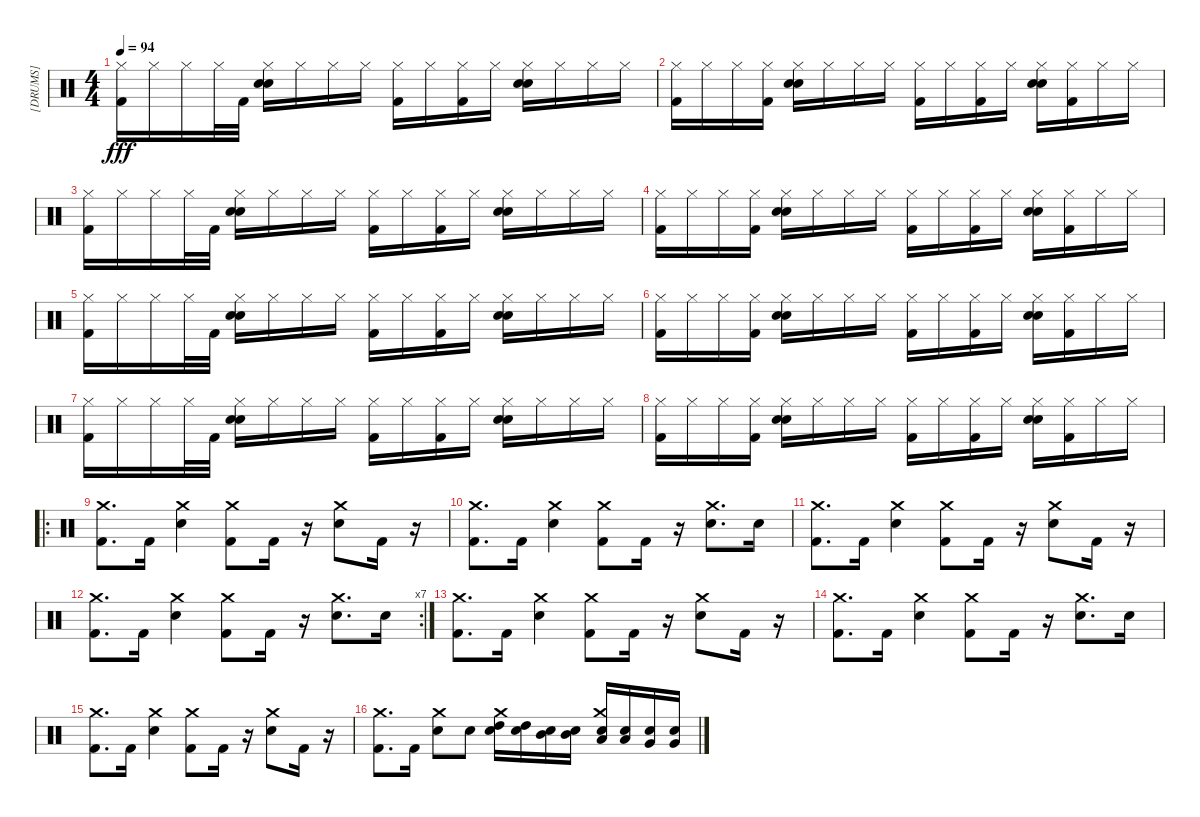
\track ("[DRUMS]" "[DRUMS]") {instrument percussion}
\staff {score}
\articulation defaults
\ts (4 4)
\tempo 94
\clef neutral
\ks c
("Hi-Hat (closed)" "Kick (hit) 2").16{dy fff} "Hi-Hat (closed)".16 "Hi-Hat (closed)".16 "Hi-Hat (closed)".32 "Kick (hit) 2".32 ("Hi-Hat (closed)" "Snare (hit) 2" "Electric Snare (hit)").16 "Hi-Hat (closed)".16 "Hi-Hat (closed)".16 "Hi-Hat (closed)".16 ("Hi-Hat (closed)" "Kick (hit) 2").16 "Hi-Hat (closed)".16 ("Hi-Hat (closed)" "Kick (hit) 2").16 "Hi-Hat (closed)".16 ("Hi-Hat (closed)" "Snare (hit) 2" "Electric Snare (hit)").16 "Hi-Hat (closed)".16 "Hi-Hat (closed)".16 "Hi-Hat (closed)".16 |
("Kick (hit) 2" "Hi-Hat (closed)").16 "Hi-Hat (closed)".16 "Hi-Hat (closed)".16 ("Kick (hit) 2" "Hi-Hat (closed)").16 ("Snare (hit) 2" "Electric Snare (hit)" "Hi-Hat (closed)").16 "Hi-Hat (closed)".16 "Hi-Hat (closed)".16 "Hi-Hat (closed)".16 ("Kick (hit) 2" "Hi-Hat (closed)").16 "Hi-Hat (closed)".16 ("Kick (hit) 2" "Hi-Hat (closed)").16 "Hi-Hat (closed)".16 ("Snare (hit) 2" "Electric Snare (hit)" "Hi-Hat (closed)").16 ("Kick (hit) 2" "Hi-Hat (closed)").16 "Hi-Hat (closed)".16 "Hi-Hat (closed)".16 |
("Hi-Hat (closed)" "Kick (hit) 2").16 "Hi-Hat (closed)".16 "Hi-Hat (closed)".16 "Hi-Hat (closed)".32 "Kick (hit) 2".32 ("Hi-Hat (closed)" "Snare (hit) 2" "Electric Snare (hit)").16 "Hi-Hat (closed)".16 "Hi-Hat (closed)".16 "Hi-Hat (closed)".16 ("Hi-Hat (closed)" "Kick (hit) 2").16 "Hi-Hat (closed)".16 ("Hi-Hat (closed)" "Kick (hit) 2").16 "Hi-Hat (closed)".16 ("Hi-Hat (closed)" "Snare (hit) 2" "Electric Snare (hit)").16 "Hi-Hat (closed)".16 "Hi-Hat (closed)".16 "Hi-Hat (closed)".16 |
("Kick (hit) 2" "Hi-Hat (closed)").16 "Hi-Hat (closed)".16 "Hi-Hat (closed)".16 ("Kick (hit) 2" "Hi-Hat (closed)").16 ("Snare (hit) 2" "Electric Snare (hit)" "Hi-Hat (closed)").16 "Hi-Hat (closed)".16 "Hi-Hat (closed)".16 "Hi-Hat (closed)".16 ("Kick (hit) 2" "Hi-Hat (closed)").16 "Hi-Hat (closed)".16 ("Kick (hit) 2" "Hi-Hat (closed)").16 "Hi-Hat (closed)".16 ("Snare (hit) 2" "Electric Snare (hit)" "Hi-Hat (closed)").16 ("Kick (hit) 2" "Hi-Hat (closed)").16 "Hi-Hat (closed)".16 "Hi-Hat (closed)".16 |
("Hi-Hat (closed)" "Kick (hit) 2").16 "Hi-Hat (closed)".16 "Hi-Hat (closed)".16 "Hi-Hat (closed)".32 "Kick (hit) 2".32 ("Hi-Hat (closed)" "Snare (hit) 2" "Electric Snare (hit)").16 "Hi-Hat (closed)".16 "Hi-Hat (closed)".16 "Hi-Hat (closed)".16 ("Hi-Hat (closed)" "Kick (hit) 2").16 "Hi-Hat (closed)".16 ("Hi-Hat (closed)" "Kick (hit) 2").16 "Hi-Hat (closed)".16 ("Hi-Hat (closed)" "Snare (hit) 2" "Electric Snare (hit)").16 "Hi-Hat (closed)".16 "Hi-Hat (closed)".16 "Hi-Hat (closed)".16 |
("Kick (hit) 2" "Hi-Hat (closed)").16 "Hi-Hat (closed)".16 "Hi-Hat (closed)".16 ("Kick (hit) 2" "Hi-Hat (closed)").16 ("Snare (hit) 2" "Electric Snare (hit)" "Hi-Hat (closed)").16 "Hi-Hat (closed)".16 "Hi-Hat (closed)".16 "Hi-Hat (closed)".16 ("Kick (hit) 2" "Hi-Hat (closed)").16 "Hi-Hat (closed)".16 ("Kick (hit) 2" "Hi-Hat (closed)").16 "Hi-Hat (closed)".16 ("Snare (hit) 2" "Electric Snare (hit)" "Hi-Hat (closed)").16 ("Kick (hit) 2" "Hi-Hat (closed)").16 "Hi-Hat (closed)".16 "Hi-Hat (closed)".16 |
("Hi-Hat (closed)" "Kick (hit) 2").16 "Hi-Hat (closed)".16 "Hi-Hat (closed)".16 "Hi-Hat (closed)".32 "Kick (hit) 2".32 ("Hi-Hat (closed)" "Snare (hit) 2" "Electric Snare (hit)").16 "Hi-Hat (closed)".16 "Hi-Hat (closed)".16 "Hi-Hat (closed)".16 ("Hi-Hat (closed)" "Kick (hit) 2").16 "Hi-Hat (closed)".16 ("Hi-Hat (closed)" "Kick (hit) 2").16 "Hi-Hat (closed)".16 ("Hi-Hat (closed)" "Snare (hit) 2" "Electric Snare (hit)").16 "Hi-Hat (closed)".16 "Hi-Hat (closed)".16 "Hi-Hat (closed)".16 |
("Kick (hit) 2" "Hi-Hat (closed)").16 "Hi-Hat (closed)".16 "Hi-Hat (closed)".16 ("Kick (hit) 2" "Hi-Hat (closed)").16 ("Snare (hit) 2" "Electric Snare (hit)" "Hi-Hat (closed)").16 "Hi-Hat (closed)".16 "Hi-Hat (closed)".16 "Hi-Hat (closed)".16 ("Kick (hit) 2" "Hi-Hat (closed)").16 "Hi-Hat (closed)".16 ("Kick (hit) 2" "Hi-Hat (closed)").16 "Hi-Hat (closed)".16 ("Snare (hit) 2" "Electric Snare (hit)" "Hi-Hat (closed)").16 ("Kick (hit) 2" "Hi-Hat (closed)").16 "Hi-Hat (closed)".16 "Hi-Hat (closed)".16 |
\ro
("Crash medium (hit)" "Kick (hit) 2").8{d} "Kick (hit) 2".16 ("Crash medium (hit)" "Electric Snare (hit)").4 ("Crash medium (hit)" "Kick (hit) 2").8 "Kick (hit) 2".16 r.16 ("Crash medium (hit)" "Electric Snare (hit)").8 "Kick (hit) 2".16 r.16 |
("Crash medium (hit)" "Kick (hit) 2").8{d} "Kick (hit) 2".16 ("Crash medium (hit)" "Electric Snare (hit)").4 ("Crash medium (hit)" "Kick (hit) 2").8 "Kick (hit) 2".16 r.16 ("Crash medium (hit)" "Electric Snare (hit)").8{d} "Electric Snare (hit)".16 |
("Crash medium (hit)" "Kick (hit) 2").8{d} "Kick (hit) 2".16 ("Crash medium (hit)" "Electric Snare (hit)").4 ("Crash medium (hit)" "Kick (hit) 2").8 "Kick (hit) 2".16 r.16 ("Crash medium (hit)" "Electric Snare (hit)").8 "Kick (hit) 2".16 r.16 |
\rc 7
("Crash medium (hit)" "Kick (hit) 2").8{d} "Kick (hit) 2".16 ("Crash medium (hit)" "Electric Snare (hit)").4 ("Crash medium (hit)" "Kick (hit) 2").8 "Kick (hit) 2".16 r.16 ("Crash medium (hit)" "Electric Snare (hit)").8{d} "Electric Snare (hit)".16 |
("Crash medium (hit)" "Kick (hit) 2").8{d} "Kick (hit) 2".16 ("Crash medium (hit)" "Electric Snare (hit)").4 ("Crash medium (hit)" "Kick (hit) 2").8 "Kick (hit) 2".16 r.16 ("Crash medium (hit)" "Electric Snare (hit)").8 "Kick (hit) 2".16 r.16 |
("Crash medium (hit)" "Kick (hit) 2").8{d} "Kick (hit) 2".16 ("Crash medium (hit)" "Electric Snare (hit)").4 ("Crash medium (hit)" "Kick (hit) 2").8 "Kick (hit) 2".16 r.16 ("Crash medium (hit)" "Electric Snare (hit)").8{d} "Electric Snare (hit)".16 |
("Crash medium (hit)" "Kick (hit) 2").8{d} "Kick (hit) 2".16 ("Crash medium (hit)" "Electric Snare (hit)").4 ("Crash medium (hit)" "Kick (hit) 2").8 "Kick (hit) 2".16 r.16 ("Crash medium (hit)" "Electric Snare (hit)").8 "Kick (hit) 2".16 r.16 |
("Crash medium (hit)" "Kick (hit) 2").8{d} "Kick (hit) 2".16 ("Crash medium (hit)" "Electric Snare (hit)").8 "Electric Snare (hit)".8 ("High Tom (hit)" "Electric Snare (hit)" "Crash medium (hit)").16 ("High Tom (hit)" "Electric Snare (hit)").16 ("Mid Tom (hit)" "Electric Snare (hit)").16 ("Mid Tom (hit)" "Electric Snare (hit)").16 ("Low Tom (hit)" "Electric Snare (hit)" "Crash medium (hit)").16 ("Low Tom (hit)" "Electric Snare (hit)").16 ("Very Low Tom (hit)" "Electric Snare (hit)").16 ("Very Low Tom (hit)" "Electric Snare (hit)").16
